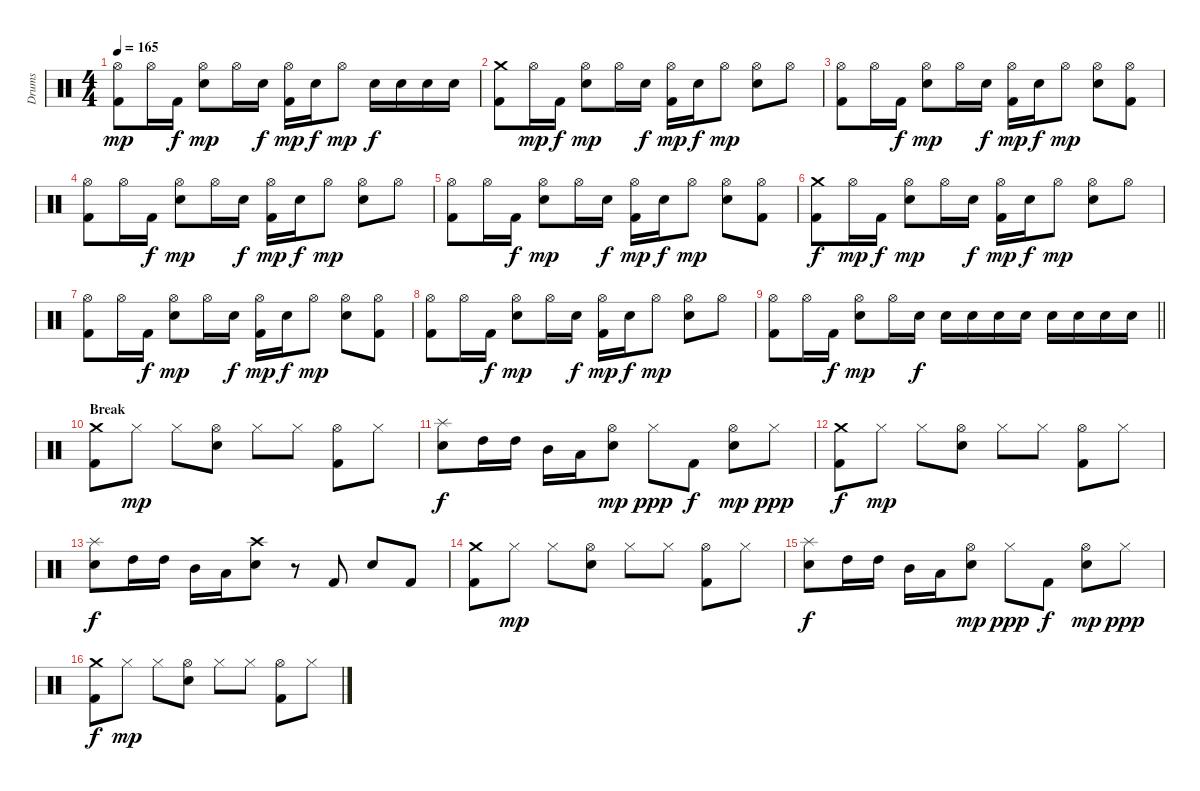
\track ("Drums" "Drums") {instrument percussion}
\staff {score}
\articulation defaults
\ts (4 4)
\tempo 165
\clef neutral
\ks c
("Hi-Hat (open)" "Kick (hit) 2").8{dy mp} "Hi-Hat (open)".16 "Kick (hit) 2".16{dy f} ("Hi-Hat (open)" "Snare (hit) 2").8{dy mp} "Hi-Hat (open)".16 "Snare (hit) 2".16{dy f} ("Hi-Hat (open)" "Kick (hit) 2").16{dy mp} "Snare (hit) 2".16{dy f} "Hi-Hat (open)".8{dy mp} "Snare (hit) 2".16{dy f} "Snare (hit) 2".16 "Snare (hit) 2".16 "Snare (hit) 2".16 |
("Crash medium (hit)" "Kick (hit) 2").8 "Hi-Hat (open)".16{dy mp} "Kick (hit) 2".16{dy f} ("Hi-Hat (open)" "Snare (hit) 2").8{dy mp} "Hi-Hat (open)".16 "Snare (hit) 2".16{dy f} ("Hi-Hat (open)" "Kick (hit) 2").16{dy mp} "Snare (hit) 2".16{dy f} "Hi-Hat (open)".8{dy mp} ("Hi-Hat (open)" "Snare (hit) 2").8 "Hi-Hat (open)".8 |
("Hi-Hat (open)" "Kick (hit) 2").8 "Hi-Hat (open)".16 "Kick (hit) 2".16{dy f} ("Hi-Hat (open)" "Snare (hit) 2").8{dy mp} "Hi-Hat (open)".16 "Snare (hit) 2".16{dy f} ("Hi-Hat (open)" "Kick (hit) 2").16{dy mp} "Snare (hit) 2".16{dy f} "Hi-Hat (open)".8{dy mp} ("Hi-Hat (open)" "Snare (hit) 2").8 ("Hi-Hat (open)" "Kick (hit) 2").8 |
("Hi-Hat (open)" "Kick (hit) 2").8 "Hi-Hat (open)".16 "Kick (hit) 2".16{dy f} ("Hi-Hat (open)" "Snare (hit) 2").8{dy mp} "Hi-Hat (open)".16 "Snare (hit) 2".16{dy f} ("Hi-Hat (open)" "Kick (hit) 2").16{dy mp} "Snare (hit) 2".16{dy f} "Hi-Hat (open)".8{dy mp} ("Hi-Hat (open)" "Snare (hit) 2").8 "Hi-Hat (open)".8 |
("Hi-Hat (open)" "Kick (hit) 2").8 "Hi-Hat (open)".16 "Kick (hit) 2".16{dy f} ("Hi-Hat (open)" "Snare (hit) 2").8{dy mp} "Hi-Hat (open)".16 "Snare (hit) 2".16{dy f} ("Hi-Hat (open)" "Kick (hit) 2").16{dy mp} "Snare (hit) 2".16{dy f} "Hi-Hat (open)".8{dy mp} ("Hi-Hat (open)" "Snare (hit) 2").8 ("Hi-Hat (open)" "Kick (hit) 2").8 |
("Crash medium (hit)" "Kick (hit) 2").8{dy f} "Hi-Hat (open)".16{dy mp} "Kick (hit) 2".16{dy f} ("Hi-Hat (open)" "Snare (hit) 2").8{dy mp} "Hi-Hat (open)".16 "Snare (hit) 2".16{dy f} ("Hi-Hat (open)" "Kick (hit) 2").16{dy mp} "Snare (hit) 2".16{dy f} "Hi-Hat (open)".8{dy mp} ("Hi-Hat (open)" "Snare (hit) 2").8 "Hi-Hat (open)".8 |
("Hi-Hat (open)" "Kick (hit) 2").8 "Hi-Hat (open)".16 "Kick (hit) 2".16{dy f} ("Hi-Hat (open)" "Snare (hit) 2").8{dy mp} "Hi-Hat (open)".16 "Snare (hit) 2".16{dy f} ("Hi-Hat (open)" "Kick (hit) 2").16{dy mp} "Snare (hit) 2".16{dy f} "Hi-Hat (open)".8{dy mp} ("Hi-Hat (open)" "Snare (hit) 2").8 ("Hi-Hat (open)" "Kick (hit) 2").8 |
("Hi-Hat (open)" "Kick (hit) 2").8 "Hi-Hat (open)".16 "Kick (hit) 2".16{dy f} ("Hi-Hat (open)" "Snare (hit) 2").8{dy mp} "Hi-Hat (open)".16 "Snare (hit) 2".16{dy f} ("Hi-Hat (open)" "Kick (hit) 2").16{dy mp} "Snare (hit) 2".16{dy f} "Hi-Hat (open)".8{dy mp} ("Hi-Hat (open)" "Snare (hit) 2").8 "Hi-Hat (open)".8 |
\barLineRight lightlight
("Hi-Hat (open)" "Kick (hit) 2").8 "Hi-Hat (open)".16 "Kick (hit) 2".16{dy f} ("Hi-Hat (open)" "Snare (hit) 2").8{dy mp} "Hi-Hat (open)".16 "Snare (hit) 2".16{dy f} "Snare (hit) 2".16 "Snare (hit) 2".16 "Snare (hit) 2".16 "Snare (hit) 2".16 "Snare (hit) 2".16 "Snare (hit) 2".16 "Snare (hit) 2".16 "Snare (hit) 2".16 |
\section ("" "Break")
("Crash medium (hit)" "Kick (hit) 2").8 "Hi-Hat (closed)".8{dy mp} "Hi-Hat (closed)".8 ("Hi-Hat (open)" "Snare (hit) 2").8 "Hi-Hat (closed)".8 "Hi-Hat (closed)".8 ("Hi-Hat (open)" "Kick (hit) 2").8 "Hi-Hat (closed)".8 |
("Splash (hit)" "Snare (hit) 2").8{dy f} "High Tom (hit)".16 "High Tom (hit)".16 "Mid Tom (hit)".16 "Low Tom (hit)".16 ("Hi-Hat (open)" "Snare (hit) 2").8{dy mp} "Hi-Hat (closed)".8{dy ppp} "Kick (hit) 2".8{dy f} ("Hi-Hat (open)" "Snare (hit) 2").8{dy mp} "Hi-Hat (closed)".8{dy ppp} |
("Crash medium (hit)" "Kick (hit) 2").8{dy f} "Hi-Hat (closed)".8{dy mp} "Hi-Hat (closed)".8 ("Hi-Hat (open)" "Snare (hit) 2").8 "Hi-Hat (closed)".8 "Hi-Hat (closed)".8 ("Hi-Hat (open)" "Kick (hit) 2").8 "Hi-Hat (closed)".8 |
("Splash (hit)" "Snare (hit) 2").8{dy f} "High Tom (hit)".16 "High Tom (hit)".16 "Mid Tom (hit)".16 "Low Tom (hit)".16 ("Crash high (hit)" "Snare (hit) 2").8 r.8 "Kick (hit) 2".8 "Snare (hit) 2".8 "Kick (hit) 2".8 |
("Crash medium (hit)" "Kick (hit) 2").8 "Hi-Hat (closed)".8{dy mp} "Hi-Hat (closed)".8 ("Hi-Hat (open)" "Snare (hit) 2").8 "Hi-Hat (closed)".8 "Hi-Hat (closed)".8 ("Hi-Hat (open)" "Kick (hit) 2").8 "Hi-Hat (closed)".8 |
("Splash (hit)" "Snare (hit) 2").8{dy f} "High Tom (hit)".16 "High Tom (hit)".16 "Mid Tom (hit)".16 "Low Tom (hit)".16 ("Hi-Hat (open)" "Snare (hit) 2").8{dy mp} "Hi-Hat (closed)".8{dy ppp} "Kick (hit) 2".8{dy f} ("Hi-Hat (open)" "Snare (hit) 2").8{dy mp} "Hi-Hat (closed)".8{dy ppp} |
("Crash medium (hit)" "Kick (hit) 2").8{dy f} "Hi-Hat (closed)".8{dy mp} "Hi-Hat (closed)".8 ("Hi-Hat (open)" "Snare (hit) 2").8 "Hi-Hat (closed)".8 "Hi-Hat (closed)".8 ("Hi-Hat (open)" "Kick (hit) 2").8 "Hi-Hat (closed)".8
